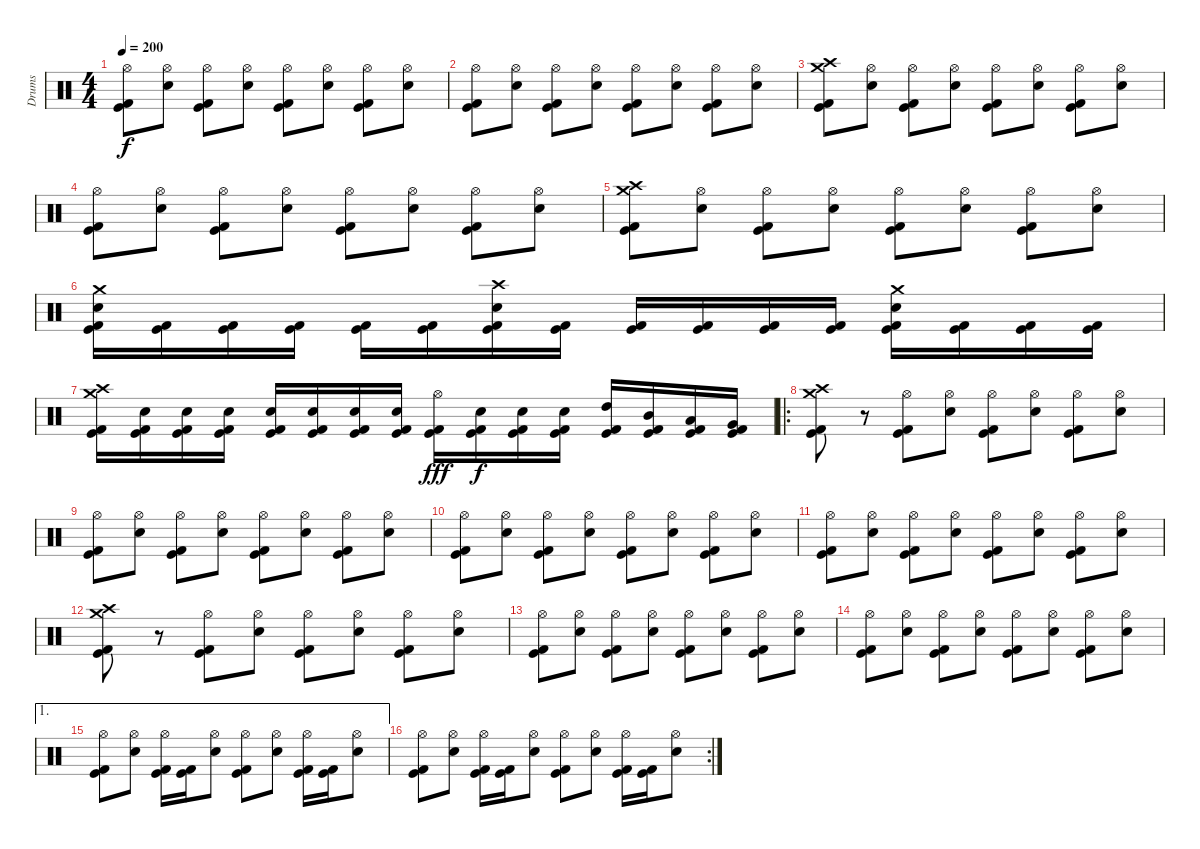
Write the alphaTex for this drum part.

\track ("Drums" "Drums") {instrument percussion}
\staff {score}
\articulation defaults
\ts (4 4)
\tempo 200
\clef neutral
\ks c
("Hi-Hat (open)" "Kick (hit)" "Kick (hit) 2").8{dy f} ("Hi-Hat (open)" "Electric Snare (hit)").8 ("Hi-Hat (open)" "Kick (hit)" "Kick (hit) 2").8 ("Hi-Hat (open)" "Electric Snare (hit)").8 ("Hi-Hat (open)" "Kick (hit)" "Kick (hit) 2").8 ("Hi-Hat (open)" "Electric Snare (hit)").8 ("Hi-Hat (open)" "Kick (hit)" "Kick (hit) 2").8 ("Hi-Hat (open)" "Electric Snare (hit)").8 |
("Hi-Hat (open)" "Kick (hit)" "Kick (hit) 2").8 ("Hi-Hat (open)" "Electric Snare (hit)").8 ("Hi-Hat (open)" "Kick (hit)" "Kick (hit) 2").8 ("Hi-Hat (open)" "Electric Snare (hit)").8 ("Hi-Hat (open)" "Kick (hit)" "Kick (hit) 2").8 ("Hi-Hat (open)" "Electric Snare (hit)").8 ("Hi-Hat (open)" "Kick (hit)" "Kick (hit) 2").8 ("Hi-Hat (open)" "Electric Snare (hit)").8 |
("Crash medium (hit)" "Crash high (hit)" "Kick (hit)" "Kick (hit) 2").8 ("Hi-Hat (open)" "Electric Snare (hit)").8 ("Hi-Hat (open)" "Kick (hit)" "Kick (hit) 2").8 ("Hi-Hat (open)" "Electric Snare (hit)").8 ("Hi-Hat (open)" "Kick (hit)" "Kick (hit) 2").8 ("Hi-Hat (open)" "Electric Snare (hit)").8 ("Hi-Hat (open)" "Kick (hit)" "Kick (hit) 2").8 ("Hi-Hat (open)" "Electric Snare (hit)").8 |
("Hi-Hat (open)" "Kick (hit)" "Kick (hit) 2").8 ("Hi-Hat (open)" "Electric Snare (hit)").8 ("Hi-Hat (open)" "Kick (hit)" "Kick (hit) 2").8 ("Hi-Hat (open)" "Electric Snare (hit)").8 ("Hi-Hat (open)" "Kick (hit)" "Kick (hit) 2").8 ("Hi-Hat (open)" "Electric Snare (hit)").8 ("Hi-Hat (open)" "Kick (hit)" "Kick (hit) 2").8 ("Hi-Hat (open)" "Electric Snare (hit)").8 |
("Crash medium (hit)" "Crash high (hit)" "Kick (hit)" "Kick (hit) 2").8 ("Hi-Hat (open)" "Electric Snare (hit)").8 ("Hi-Hat (open)" "Kick (hit)" "Kick (hit) 2").8 ("Hi-Hat (open)" "Electric Snare (hit)").8 ("Hi-Hat (open)" "Kick (hit)" "Kick (hit) 2").8 ("Hi-Hat (open)" "Electric Snare (hit)").8 ("Hi-Hat (open)" "Kick (hit)" "Kick (hit) 2").8 ("Hi-Hat (open)" "Electric Snare (hit)").8 |
("Crash medium (hit)" "Electric Snare (hit)" "Kick (hit)" "Kick (hit) 2").16 ("Kick (hit)" "Kick (hit) 2").16 ("Kick (hit)" "Kick (hit) 2").16 ("Kick (hit)" "Kick (hit) 2").16 ("Kick (hit)" "Kick (hit) 2").16 ("Kick (hit)" "Kick (hit) 2").16 ("Crash high (hit)" "Electric Snare (hit)" "Kick (hit)" "Kick (hit) 2").16 ("Kick (hit)" "Kick (hit) 2").16 ("Kick (hit)" "Kick (hit) 2").16 ("Kick (hit)" "Kick (hit) 2").16 ("Kick (hit)" "Kick (hit) 2").16 ("Kick (hit)" "Kick (hit) 2").16 ("Crash medium (hit)" "Electric Snare (hit)" "Kick (hit)" "Kick (hit) 2").16 ("Kick (hit)" "Kick (hit) 2").16 ("Kick (hit)" "Kick (hit) 2").16 ("Kick (hit)" "Kick (hit) 2").16 |
("Crash medium (hit)" "Crash high (hit)" "Kick (hit)" "Kick (hit) 2").16 ("Electric Snare (hit)" "Kick (hit)" "Kick (hit) 2").16 ("Electric Snare (hit)" "Kick (hit)" "Kick (hit) 2").16 ("Electric Snare (hit)" "Kick (hit)" "Kick (hit) 2").16 ("Electric Snare (hit)" "Kick (hit)" "Kick (hit) 2").16 ("Electric Snare (hit)" "Kick (hit)" "Kick (hit) 2").16 ("Electric Snare (hit)" "Kick (hit)" "Kick (hit) 2").16 ("Electric Snare (hit)" "Kick (hit)" "Kick (hit) 2").16 ("Hi-Hat (open)" "Kick (hit)" "Kick (hit) 2").16{dy fff} ("Electric Snare (hit)" "Kick (hit)" "Kick (hit) 2").16{dy f} ("Electric Snare (hit)" "Kick (hit)" "Kick (hit) 2").16 ("Electric Snare (hit)" "Kick (hit)" "Kick (hit) 2").16 ("High Tom (hit)" "Kick (hit)" "Kick (hit) 2").16 ("Mid Tom (hit)" "Kick (hit)" "Kick (hit) 2").16 ("Low Tom (hit)" "Kick (hit)" "Kick (hit) 2").16 ("Very Low Tom (hit)" "Kick (hit)" "Kick (hit) 2").16 |
\ro
("Crash medium (hit)" "Crash high (hit)" "Kick (hit)" "Kick (hit) 2").8 r.8 ("Hi-Hat (open)" "Kick (hit)" "Kick (hit) 2").8 ("Hi-Hat (open)" "Electric Snare (hit)").8 ("Hi-Hat (open)" "Kick (hit)" "Kick (hit) 2").8 ("Hi-Hat (open)" "Electric Snare (hit)").8 ("Hi-Hat (open)" "Kick (hit)" "Kick (hit) 2").8 ("Hi-Hat (open)" "Electric Snare (hit)").8 |
("Hi-Hat (open)" "Kick (hit)" "Kick (hit) 2").8 ("Hi-Hat (open)" "Electric Snare (hit)").8 ("Hi-Hat (open)" "Kick (hit)" "Kick (hit) 2").8 ("Hi-Hat (open)" "Electric Snare (hit)").8 ("Hi-Hat (open)" "Kick (hit)" "Kick (hit) 2").8 ("Hi-Hat (open)" "Electric Snare (hit)").8 ("Hi-Hat (open)" "Kick (hit)" "Kick (hit) 2").8 ("Hi-Hat (open)" "Electric Snare (hit)").8 |
("Hi-Hat (open)" "Kick (hit)" "Kick (hit) 2").8 ("Hi-Hat (open)" "Electric Snare (hit)").8 ("Hi-Hat (open)" "Kick (hit)" "Kick (hit) 2").8 ("Hi-Hat (open)" "Electric Snare (hit)").8 ("Hi-Hat (open)" "Kick (hit)" "Kick (hit) 2").8 ("Hi-Hat (open)" "Electric Snare (hit)").8 ("Hi-Hat (open)" "Kick (hit)" "Kick (hit) 2").8 ("Hi-Hat (open)" "Electric Snare (hit)").8 |
("Hi-Hat (open)" "Kick (hit)" "Kick (hit) 2").8 ("Hi-Hat (open)" "Electric Snare (hit)").8 ("Hi-Hat (open)" "Kick (hit)" "Kick (hit) 2").8 ("Hi-Hat (open)" "Electric Snare (hit)").8 ("Hi-Hat (open)" "Kick (hit)" "Kick (hit) 2").8 ("Hi-Hat (open)" "Electric Snare (hit)").8 ("Hi-Hat (open)" "Kick (hit)" "Kick (hit) 2").8 ("Hi-Hat (open)" "Electric Snare (hit)").8 |
("Crash medium (hit)" "Crash high (hit)" "Kick (hit)" "Kick (hit) 2").8 r.8 ("Hi-Hat (open)" "Kick (hit)" "Kick (hit) 2").8 ("Hi-Hat (open)" "Electric Snare (hit)").8 ("Hi-Hat (open)" "Kick (hit)" "Kick (hit) 2").8 ("Hi-Hat (open)" "Electric Snare (hit)").8 ("Hi-Hat (open)" "Kick (hit)" "Kick (hit) 2").8 ("Hi-Hat (open)" "Electric Snare (hit)").8 |
("Hi-Hat (open)" "Kick (hit)" "Kick (hit) 2").8 ("Hi-Hat (open)" "Electric Snare (hit)").8 ("Hi-Hat (open)" "Kick (hit)" "Kick (hit) 2").8 ("Hi-Hat (open)" "Electric Snare (hit)").8 ("Hi-Hat (open)" "Kick (hit)" "Kick (hit) 2").8 ("Hi-Hat (open)" "Electric Snare (hit)").8 ("Hi-Hat (open)" "Kick (hit)" "Kick (hit) 2").8 ("Hi-Hat (open)" "Electric Snare (hit)").8 |
("Hi-Hat (open)" "Kick (hit)" "Kick (hit) 2").8 ("Hi-Hat (open)" "Electric Snare (hit)").8 ("Hi-Hat (open)" "Kick (hit)" "Kick (hit) 2").8 ("Hi-Hat (open)" "Electric Snare (hit)").8 ("Hi-Hat (open)" "Kick (hit)" "Kick (hit) 2").8 ("Hi-Hat (open)" "Electric Snare (hit)").8 ("Hi-Hat (open)" "Kick (hit)" "Kick (hit) 2").8 ("Hi-Hat (open)" "Electric Snare (hit)").8 |
\ae 1
("Hi-Hat (open)" "Kick (hit)" "Kick (hit) 2").8 ("Hi-Hat (open)" "Electric Snare (hit)").8 ("Hi-Hat (open)" "Kick (hit)" "Kick (hit) 2").16 ("Kick (hit)" "Kick (hit) 2").16 ("Hi-Hat (open)" "Electric Snare (hit)").8 ("Hi-Hat (open)" "Kick (hit)" "Kick (hit) 2").8 ("Hi-Hat (open)" "Electric Snare (hit)").8 ("Hi-Hat (open)" "Kick (hit)" "Kick (hit) 2").16 ("Kick (hit)" "Kick (hit) 2").16 ("Hi-Hat (open)" "Electric Snare (hit)").8 |
\rc 2
("Hi-Hat (open)" "Kick (hit)" "Kick (hit) 2").8 ("Hi-Hat (open)" "Electric Snare (hit)").8 ("Hi-Hat (open)" "Kick (hit)" "Kick (hit) 2").16 ("Kick (hit)" "Kick (hit) 2").16 ("Hi-Hat (open)" "Electric Snare (hit)").8 ("Hi-Hat (open)" "Kick (hit)" "Kick (hit) 2").8 ("Hi-Hat (open)" "Electric Snare (hit)").8 ("Hi-Hat (open)" "Kick (hit)" "Kick (hit) 2").16 ("Kick (hit)" "Kick (hit) 2").16 ("Hi-Hat (open)" "Electric Snare (hit)").8
